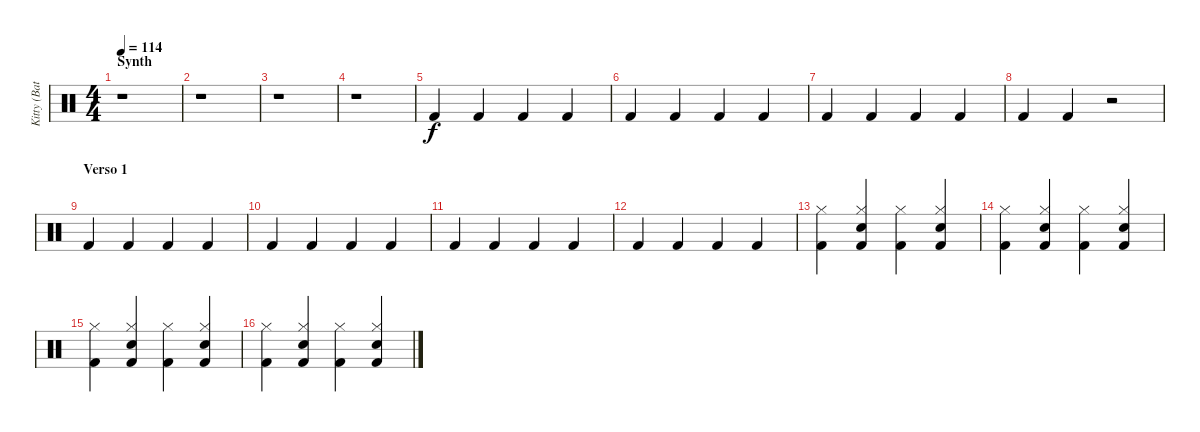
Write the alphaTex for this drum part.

\track ("Kitty (Bataca)" "Kitty (Bat") {instrument percussion}
\staff {score}
\articulation defaults
\ts (4 4)
\section ("" "Synth")
\tempo 114
\clef neutral
\ks c
r.1{dy f} |
r.1 |
r.1 |
r.1 |
"Kick (hit) 2".4 "Kick (hit) 2".4 "Kick (hit) 2".4 "Kick (hit) 2".4 |
"Kick (hit) 2".4 "Kick (hit) 2".4 "Kick (hit) 2".4 "Kick (hit) 2".4 |
"Kick (hit) 2".4 "Kick (hit) 2".4 "Kick (hit) 2".4 "Kick (hit) 2".4 |
"Kick (hit) 2".4 "Kick (hit) 2".4 r.2 |
\section ("" "Verso 1")
"Kick (hit) 2".4 "Kick (hit) 2".4 "Kick (hit) 2".4 "Kick (hit) 2".4 |
"Kick (hit) 2".4 "Kick (hit) 2".4 "Kick (hit) 2".4 "Kick (hit) 2".4 |
"Kick (hit) 2".4 "Kick (hit) 2".4 "Kick (hit) 2".4 "Kick (hit) 2".4 |
"Kick (hit) 2".4 "Kick (hit) 2".4 "Kick (hit) 2".4 "Kick (hit) 2".4 |
("Hi-Hat (closed)" "Kick (hit) 2").4 ("Hi-Hat (closed)" "Snare (hit) 2" "Kick (hit) 2").4 ("Hi-Hat (closed)" "Kick (hit) 2").4 ("Hi-Hat (closed)" "Snare (hit) 2" "Kick (hit) 2").4 |
("Hi-Hat (closed)" "Kick (hit) 2").4 ("Hi-Hat (closed)" "Snare (hit) 2" "Kick (hit) 2").4 ("Hi-Hat (closed)" "Kick (hit) 2").4 ("Hi-Hat (closed)" "Snare (hit) 2" "Kick (hit) 2").4 |
("Hi-Hat (closed)" "Kick (hit) 2").4 ("Hi-Hat (closed)" "Snare (hit) 2" "Kick (hit) 2").4 ("Hi-Hat (closed)" "Kick (hit) 2").4 ("Hi-Hat (closed)" "Snare (hit) 2" "Kick (hit) 2").4 |
("Hi-Hat (closed)" "Kick (hit) 2").4 ("Hi-Hat (closed)" "Snare (hit) 2" "Kick (hit) 2").4 ("Hi-Hat (closed)" "Kick (hit) 2").4 ("Hi-Hat (closed)" "Snare (hit) 2" "Kick (hit) 2").4
